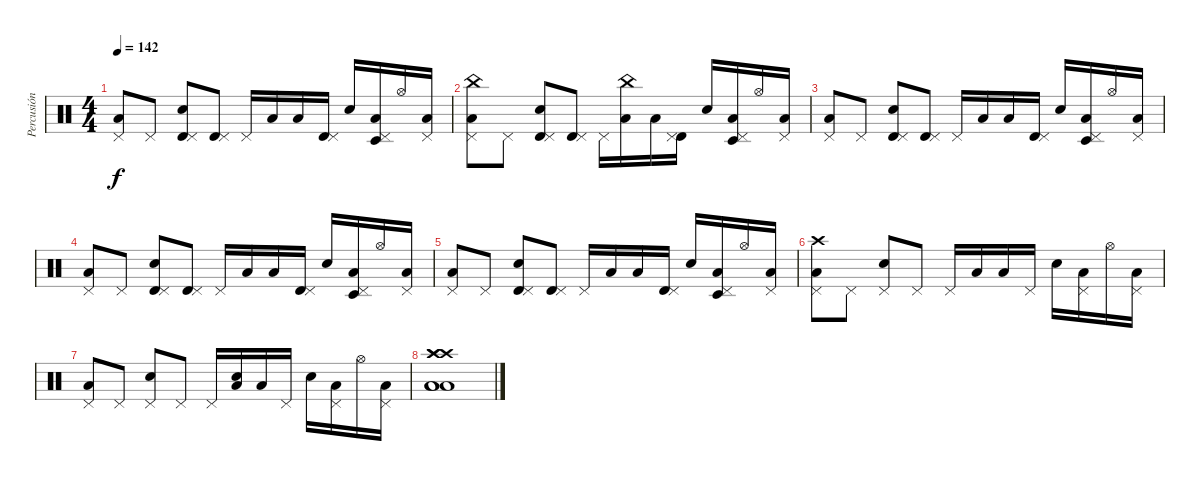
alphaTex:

\track ("Percusión" "Percusión") {instrument percussion}
\staff {score}
\articulation defaults
\ts (4 4)
\tempo 142
\clef neutral
\ks c
("Pedal Hi-Hat (hit)" "Low Floor Tom (hit)").8{dy f} "Pedal Hi-Hat (hit)".8 ("Timbale high (hit)" "Pedal Hi-Hat (hit)" "Snare (hit) 2").8 ("Timbale high (hit)" "Pedal Hi-Hat (hit)").8 "Pedal Hi-Hat (hit)".16 "Low Floor Tom (hit)".16 "Low Floor Tom (hit)".16 ("Timbale high (hit)" "Pedal Hi-Hat (hit)").16 "Snare (hit) 2".16 ("Timbale low (hit)" "Pedal Hi-Hat (hit)" "Low Floor Tom (hit)").16 "Hi-Hat (open)".16 ("Pedal Hi-Hat (hit)" "Low Floor Tom (hit)").16 |
("China (hit)" "Pedal Hi-Hat (hit)" "Low Floor Tom (hit)").8 "Pedal Hi-Hat (hit)".8 ("Timbale high (hit)" "Pedal Hi-Hat (hit)" "Snare (hit) 2").8 ("Timbale high (hit)" "Pedal Hi-Hat (hit)").8 "Pedal Hi-Hat (hit)".16 ("China (hit)" "Low Floor Tom (hit)").16 "Low Floor Tom (hit)".16 ("Timbale high (hit)" "Pedal Hi-Hat (hit)").16 "Snare (hit) 2".16 ("Timbale low (hit)" "Pedal Hi-Hat (hit)" "Low Floor Tom (hit)").16 "Hi-Hat (open)".16 ("Pedal Hi-Hat (hit)" "Low Floor Tom (hit)").16 |
("Pedal Hi-Hat (hit)" "Low Floor Tom (hit)").8 "Pedal Hi-Hat (hit)".8 ("Timbale high (hit)" "Pedal Hi-Hat (hit)" "Snare (hit) 2").8 ("Timbale high (hit)" "Pedal Hi-Hat (hit)").8 "Pedal Hi-Hat (hit)".16 "Low Floor Tom (hit)".16 "Low Floor Tom (hit)".16 ("Timbale high (hit)" "Pedal Hi-Hat (hit)").16 "Snare (hit) 2".16 ("Timbale low (hit)" "Pedal Hi-Hat (hit)" "Low Floor Tom (hit)").16 "Hi-Hat (open)".16 ("Pedal Hi-Hat (hit)" "Low Floor Tom (hit)").16 |
("Pedal Hi-Hat (hit)" "Low Floor Tom (hit)").8 "Pedal Hi-Hat (hit)".8 ("Timbale high (hit)" "Pedal Hi-Hat (hit)" "Snare (hit) 2").8 ("Timbale high (hit)" "Pedal Hi-Hat (hit)").8 "Pedal Hi-Hat (hit)".16 "Low Floor Tom (hit)".16 "Low Floor Tom (hit)".16 ("Timbale high (hit)" "Pedal Hi-Hat (hit)").16 "Snare (hit) 2".16 ("Timbale low (hit)" "Pedal Hi-Hat (hit)" "Low Floor Tom (hit)").16 "Hi-Hat (open)".16 ("Pedal Hi-Hat (hit)" "Low Floor Tom (hit)").16 |
("Pedal Hi-Hat (hit)" "Low Floor Tom (hit)").8 "Pedal Hi-Hat (hit)".8 ("Timbale high (hit)" "Pedal Hi-Hat (hit)" "Snare (hit) 2").8 ("Timbale high (hit)" "Pedal Hi-Hat (hit)").8 "Pedal Hi-Hat (hit)".16 "Low Floor Tom (hit)".16 "Low Floor Tom (hit)".16 ("Timbale high (hit)" "Pedal Hi-Hat (hit)").16 "Snare (hit) 2".16 ("Timbale low (hit)" "Pedal Hi-Hat (hit)" "Low Floor Tom (hit)").16 "Hi-Hat (open)".16 ("Pedal Hi-Hat (hit)" "Low Floor Tom (hit)").16 |
("Crash high (hit)" "Pedal Hi-Hat (hit)" "Low Floor Tom (hit)").8 "Pedal Hi-Hat (hit)".8 ("Pedal Hi-Hat (hit)" "Snare (hit) 2").8 "Pedal Hi-Hat (hit)".8 "Pedal Hi-Hat (hit)".16 "Low Floor Tom (hit)".16 "Low Floor Tom (hit)".16 "Pedal Hi-Hat (hit)".16 "Snare (hit) 2".16 ("Pedal Hi-Hat (hit)" "Low Floor Tom (hit)").16 "Hi-Hat (open)".16 ("Pedal Hi-Hat (hit)" "Low Floor Tom (hit)").16 |
("Pedal Hi-Hat (hit)" "Low Floor Tom (hit)").8 "Pedal Hi-Hat (hit)".8 ("Pedal Hi-Hat (hit)" "Snare (hit) 2").8 "Pedal Hi-Hat (hit)".8 "Pedal Hi-Hat (hit)".16 ("Snare (hit) 2" "Low Floor Tom (hit)").16 "Low Floor Tom (hit)".16 "Pedal Hi-Hat (hit)".16 "Snare (hit) 2".16 ("Pedal Hi-Hat (hit)" "Low Floor Tom (hit)").16 "Hi-Hat (open)".16 ("Pedal Hi-Hat (hit)" "Low Floor Tom (hit)").16 |
("Crash high (hit)" "Crash high (hit)" "Crash high (hit)" "Low Floor Tom (hit)" "Low Floor Tom (hit)" "Low Floor Tom (hit)").1
